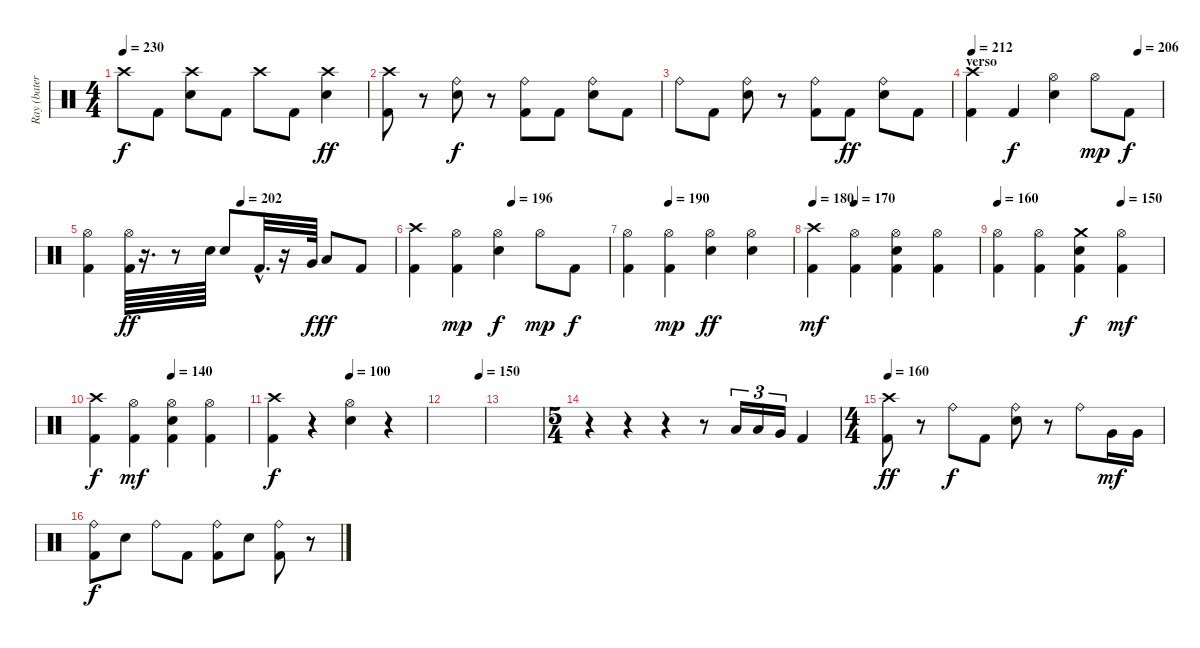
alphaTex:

\track ("Ray (batería)" "Ray (bater") {instrument percussion}
\staff {score}
\articulation defaults
\ts (4 4)
\tempo 230
\clef neutral
\ks c "Crash high (hit)".8{dy f} "Kick (hit) 2".8
("Crash high (hit)" "Snare (hit) 2").8 "Kick (hit) 2".8 "Crash high (hit)".8 "Kick (hit) 2".8 ("Crash high (hit)" "Snare (hit) 2").4{dy ff} |
("Crash high (hit)" "Kick (hit) 2").8 r.8 ("Ride (bell)" "Snare (hit) 2").8{dy f} r.8 ("Ride (bell)" "Kick (hit) 2").8 "Kick (hit) 2".8 ("Ride (bell)" "Snare (hit) 2").8 "Kick (hit) 2".8 |
"Ride (bell)".8 "Kick (hit) 2".8 ("Ride (bell)" "Snare (hit) 2").8 r.8 ("Ride (bell)" "Kick (hit) 2").8 "Kick (hit) 2".8{dy ff} ("Ride (bell)" "Snare (hit) 2").8 "Kick (hit) 2".8 |
\section ("" "verso")
\tempo 212
\tempo (206 0.875)
("Crash high (hit)" "Kick (hit) 2").4 "Kick (hit) 2".4{dy f} ("Hi-Hat (open)" "Snare (hit) 2").4 "Hi-Hat (open)".8{dy mp} "Kick (hit) 2".8{dy f} |
\tempo (202 0.5)
("Hi-Hat (open)" "Kick (hit) 2").4 ("Hi-Hat (open)" "Kick (hit) 2").64{dy ff} r.16{d} r.8 "Snare (hit) 2".64 "Snare (hit) 2".8 "Kick (hit) 2"{hac}.32{d} r.16 "Very Low Tom (hit)".64{dy f} "Low Tom (hit)".8{dy ff} "Kick (hit) 2".8 |
\tempo (196 0.5)
("Crash high (hit)" "Kick (hit) 2").4 ("Hi-Hat (open)" "Kick (hit) 2").4{dy mp} ("Hi-Hat (open)" "Snare (hit) 2").4{dy f} "Hi-Hat (open)".8{dy mp} "Kick (hit) 2".8{dy f} |
\tempo (190 0.25)
("Hi-Hat (open)" "Kick (hit) 2").4 ("Hi-Hat (open)" "Kick (hit) 2").4{dy mp} ("Hi-Hat (open)" "Snare (hit) 2").4{dy ff} ("Hi-Hat (open)" "Snare (hit) 2").4 |
\tempo 180
\tempo (170 0.25)
("Crash high (hit)" "Kick (hit) 2").4{dy mf} ("Hi-Hat (open)" "Kick (hit) 2").4 ("Hi-Hat (open)" "Snare (hit) 2" "Kick (hit) 2").4 ("Hi-Hat (open)" "Kick (hit) 2").4 |
\tempo 160
\tempo (150 0.75)
("Hi-Hat (open)" "Kick (hit) 2").4 ("Hi-Hat (open)" "Kick (hit) 2").4 ("Crash medium (hit)" "Snare (hit) 2" "Kick (hit) 2").4{dy f} ("Hi-Hat (open)" "Kick (hit) 2").4{dy mf} |
\tempo (140 0.5)
("Crash high (hit)" "Kick (hit) 2").4{dy f} ("Hi-Hat (open)" "Kick (hit) 2").4{dy mf} ("Hi-Hat (open)" "Snare (hit) 2" "Kick (hit) 2").4 ("Hi-Hat (open)" "Kick (hit) 2").4 |
\tempo (100 0.5)
("Crash high (hit)" "Kick (hit) 2").4{dy f} r.4 ("Hi-Hat (open)" "Snare (hit) 2").4 r.4 |
\tempo (150 0.875)
|
|
\ts (5 4)
r.4 r.4 r.4 r.8 "Low Tom (hit)".16{tu (3 2)} "Low Tom (hit)".16{tu (3 2)} "Very Low Tom (hit)".16{tu (3 2)} "Kick (hit) 2".4 |
\ts (4 4)
\tempo 160
("Crash high (hit)" "Kick (hit) 2").8{dy ff} r.8 "Ride (bell)".8{dy f} "Kick (hit) 2".8 ("Ride (bell)" "Snare (hit) 2").8 r.8 "Ride (bell)".8 "Very Low Tom (hit)".16{dy mf} "Very Low Tom (hit)".16 |
("Ride (bell)" "Kick (hit) 2").8{dy f} "Snare (hit) 2".8 "Ride (bell)".8 "Kick (hit) 2".8 ("Ride (bell)" "Kick (hit) 2").8 "Snare (hit) 2".8 ("Ride (bell)" "Kick (hit) 2").8 r.8
